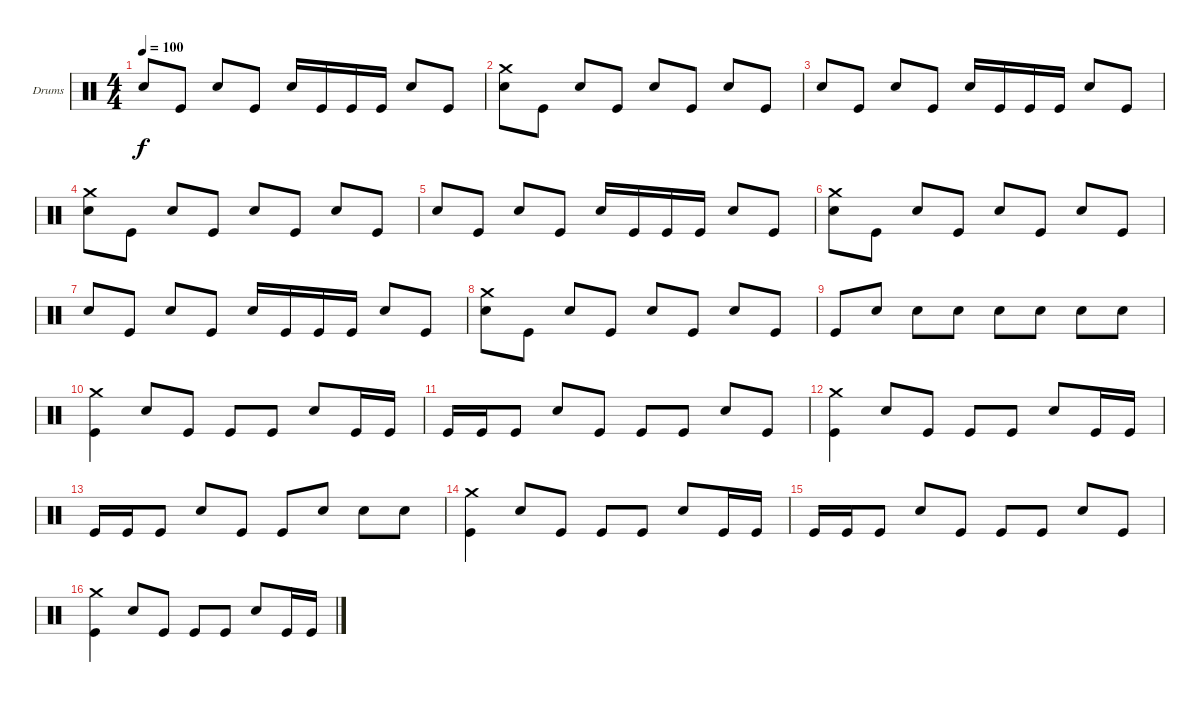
\bracketExtendMode groupsimilarinstruments
\firstSystemTrackNameOrientation horizontal
\otherSystemsTrackNameOrientation horizontal
\track ("Drumkit" "Drums") {instrument percussion}
\staff {score}
\articulation defaults
\ts (4 4)
\tempo 100
\clef neutral
\ks c "Snare (hit) 2".8{dy f} "Kick (hit)".8 "Snare (hit) 2".8 "Kick (hit)".8 "Snare (hit) 2".16 "Kick (hit)".16 "Kick (hit)".16 "Kick (hit)".16 "Snare (hit) 2".8 "Kick (hit)".8
|
("Crash medium (hit)" "Snare (hit) 2").8 "Kick (hit)".8 "Snare (hit) 2".8 "Kick (hit)".8 "Snare (hit) 2".8 "Kick (hit)".8 "Snare (hit) 2".8 "Kick (hit)".8 |
"Snare (hit) 2".8 "Kick (hit)".8 "Snare (hit) 2".8 "Kick (hit)".8 "Snare (hit) 2".16 "Kick (hit)".16 "Kick (hit)".16 "Kick (hit)".16 "Snare (hit) 2".8 "Kick (hit)".8 |
("Crash medium (hit)" "Snare (hit) 2").8 "Kick (hit)".8 "Snare (hit) 2".8 "Kick (hit)".8 "Snare (hit) 2".8 "Kick (hit)".8 "Snare (hit) 2".8 "Kick (hit)".8 |
"Snare (hit) 2".8 "Kick (hit)".8 "Snare (hit) 2".8 "Kick (hit)".8 "Snare (hit) 2".16 "Kick (hit)".16 "Kick (hit)".16 "Kick (hit)".16 "Snare (hit) 2".8 "Kick (hit)".8 |
("Crash medium (hit)" "Snare (hit) 2").8 "Kick (hit)".8 "Snare (hit) 2".8 "Kick (hit)".8 "Snare (hit) 2".8 "Kick (hit)".8 "Snare (hit) 2".8 "Kick (hit)".8 |
"Snare (hit) 2".8 "Kick (hit)".8 "Snare (hit) 2".8 "Kick (hit)".8 "Snare (hit) 2".16 "Kick (hit)".16 "Kick (hit)".16 "Kick (hit)".16 "Snare (hit) 2".8 "Kick (hit)".8 |
("Crash medium (hit)" "Snare (hit) 2").8 "Kick (hit)".8 "Snare (hit) 2".8 "Kick (hit)".8 "Snare (hit) 2".8 "Kick (hit)".8 "Snare (hit) 2".8 "Kick (hit)".8 |
"Kick (hit)".8 "Snare (hit) 2".8 "Snare (hit) 2".8 "Snare (hit) 2".8 "Snare (hit) 2".8 "Snare (hit) 2".8 "Snare (hit) 2".8 "Snare (hit) 2".8 |
("Crash medium (hit)" "Kick (hit)").4 "Snare (hit) 2".8 "Kick (hit)".8 "Kick (hit)".8 "Kick (hit)".8 "Snare (hit) 2".8 "Kick (hit)".16 "Kick (hit)".16 |
"Kick (hit)".16 "Kick (hit)".16 "Kick (hit)".8 "Snare (hit) 2".8 "Kick (hit)".8 "Kick (hit)".8 "Kick (hit)".8 "Snare (hit) 2".8 "Kick (hit)".8 |
("Crash medium (hit)" "Kick (hit)").4 "Snare (hit) 2".8 "Kick (hit)".8 "Kick (hit)".8 "Kick (hit)".8 "Snare (hit) 2".8 "Kick (hit)".16 "Kick (hit)".16 |
"Kick (hit)".16 "Kick (hit)".16 "Kick (hit)".8 "Snare (hit) 2".8 "Kick (hit)".8 "Kick (hit)".8 "Snare (hit) 2".8 "Snare (hit) 2".8 "Snare (hit) 2".8 |
("Crash medium (hit)" "Kick (hit)").4 "Snare (hit) 2".8 "Kick (hit)".8 "Kick (hit)".8 "Kick (hit)".8 "Snare (hit) 2".8 "Kick (hit)".16 "Kick (hit)".16 |
"Kick (hit)".16 "Kick (hit)".16 "Kick (hit)".8 "Snare (hit) 2".8 "Kick (hit)".8 "Kick (hit)".8 "Kick (hit)".8 "Snare (hit) 2".8 "Kick (hit)".8 |
("Crash medium (hit)" "Kick (hit)").4 "Snare (hit) 2".8 "Kick (hit)".8 "Kick (hit)".8 "Kick (hit)".8 "Snare (hit) 2".8 "Kick (hit)".16 "Kick (hit)".16
